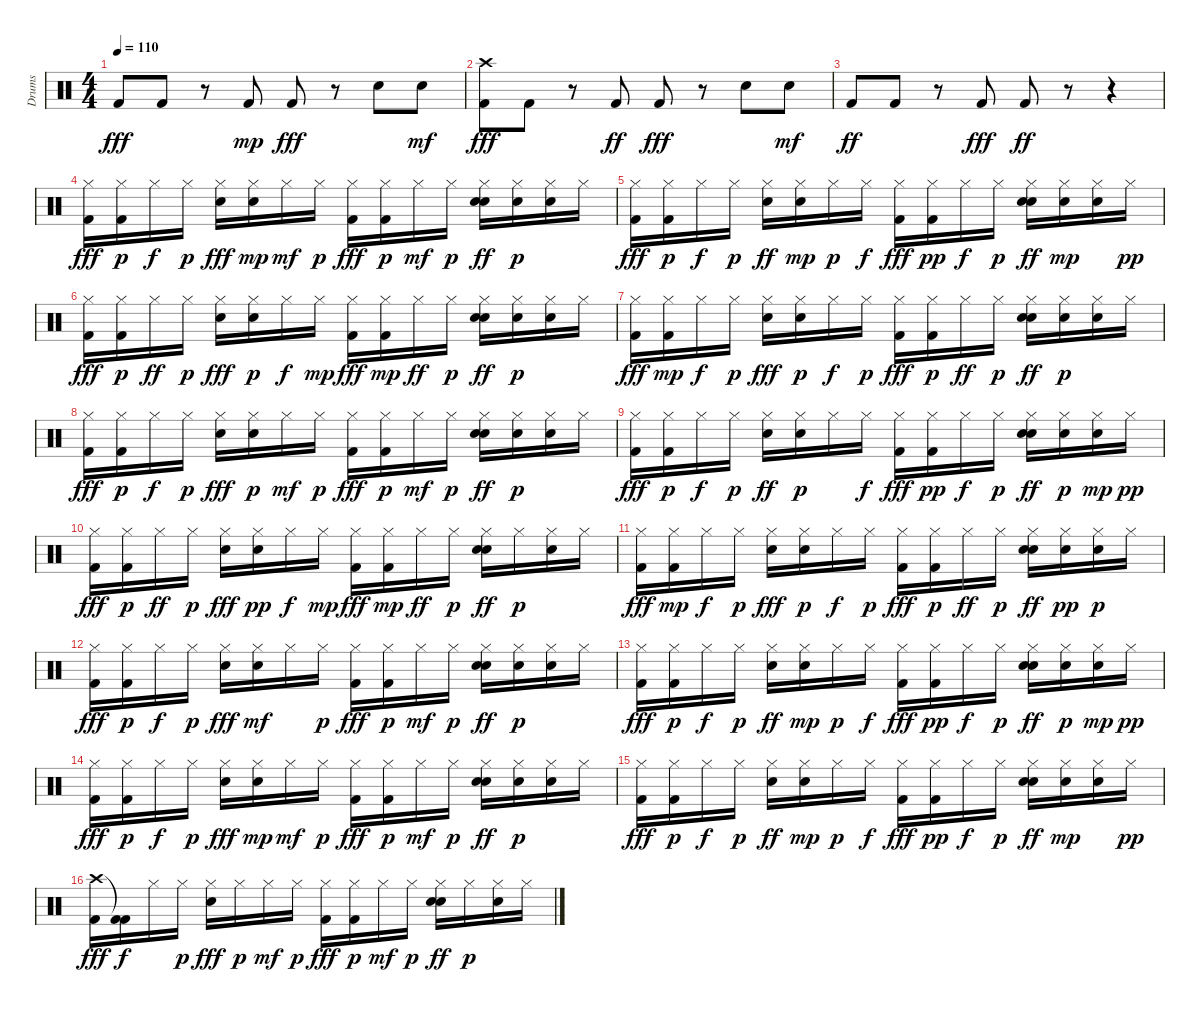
\track ("Drums" "Drums") {instrument percussion}
\staff {score}
\articulation defaults
\ts (4 4)
\tempo 110
\clef neutral
\ks c "Kick (hit) 2".8{dy fff} "Kick (hit) 2".8
r.8 "Kick (hit) 2".8{dy mp} "Kick (hit) 2".8{dy fff} r.8 "Hand Clap (hit)".8 "Hand Clap (hit)".8{dy mf} |
("Crash high (hit)" "Kick (hit) 2").8{dy fff} "Kick (hit) 2".8 r.8 "Kick (hit) 2".8{dy ff} "Kick (hit) 2".8{dy fff} r.8 "Hand Clap (hit)".8 "Hand Clap (hit)".8{dy mf} |
"Kick (hit) 2".8{dy ff} "Kick (hit) 2".8 r.8 "Kick (hit) 2".8{dy fff} "Kick (hit) 2".8{dy ff} r.8 r.4 |
("Hi-Hat (closed)" "Kick (hit) 2").16{dy fff} ("Hi-Hat (closed)" "Kick (hit) 2").16{dy p} "Hi-Hat (closed)".16{dy f} "Hi-Hat (closed)".16{dy p} ("Hi-Hat (closed)" "Snare (hit) 2").16{dy fff} ("Hi-Hat (closed)" "Snare (hit) 2").16{dy mp} "Hi-Hat (closed)".16{dy mf} "Hi-Hat (closed)".16{dy p} ("Hi-Hat (closed)" "Kick (hit) 2").16{dy fff} ("Hi-Hat (closed)" "Kick (hit) 2").16{dy p} "Hi-Hat (closed)".16{dy mf} "Hi-Hat (closed)".16{dy p} ("Hi-Hat (closed)" "Snare (hit) 2" "Hand Clap (hit)").16{dy ff} ("Hi-Hat (closed)" "Snare (hit) 2").16{dy p} ("Hi-Hat (closed)" "Hand Clap (hit)").16 "Hi-Hat (closed)".16 |
("Hi-Hat (closed)" "Kick (hit) 2").16{dy fff} ("Hi-Hat (closed)" "Kick (hit) 2").16{dy p} "Hi-Hat (closed)".16{dy f} "Hi-Hat (closed)".16{dy p} ("Hi-Hat (closed)" "Snare (hit) 2").16{dy ff} ("Hi-Hat (closed)" "Snare (hit) 2").16{dy mp} "Hi-Hat (closed)".16{dy p} "Hi-Hat (closed)".16{dy f} ("Hi-Hat (closed)" "Kick (hit) 2").16{dy fff} ("Hi-Hat (closed)" "Kick (hit) 2").16{dy pp} "Hi-Hat (closed)".16{dy f} "Hi-Hat (closed)".16{dy p} ("Hi-Hat (closed)" "Snare (hit) 2" "Hand Clap (hit)").16{dy ff} ("Hi-Hat (closed)" "Snare (hit) 2").16{dy mp} ("Hi-Hat (closed)" "Hand Clap (hit)").16 "Hi-Hat (closed)".16{dy pp} |
("Hi-Hat (closed)" "Kick (hit) 2").16{dy fff} ("Hi-Hat (closed)" "Kick (hit) 2").16{dy p} "Hi-Hat (closed)".16{dy ff} "Hi-Hat (closed)".16{dy p} ("Hi-Hat (closed)" "Snare (hit) 2").16{dy fff} ("Hi-Hat (closed)" "Snare (hit) 2").16{dy p} "Hi-Hat (closed)".16{dy f} "Hi-Hat (closed)".16{dy mp} ("Hi-Hat (closed)" "Kick (hit) 2").16{dy fff} ("Hi-Hat (closed)" "Kick (hit) 2").16{dy mp} "Hi-Hat (closed)".16{dy ff} "Hi-Hat (closed)".16{dy p} ("Hi-Hat (closed)" "Snare (hit) 2" "Hand Clap (hit)").16{dy ff} ("Hi-Hat (closed)" "Snare (hit) 2").16{dy p} ("Hi-Hat (closed)" "Hand Clap (hit)").16 "Hi-Hat (closed)".16 |
("Hi-Hat (closed)" "Kick (hit) 2").16{dy fff} ("Hi-Hat (closed)" "Kick (hit) 2").16{dy mp} "Hi-Hat (closed)".16{dy f} "Hi-Hat (closed)".16{dy p} ("Hi-Hat (closed)" "Snare (hit) 2").16{dy fff} ("Hi-Hat (closed)" "Snare (hit) 2").16{dy p} "Hi-Hat (closed)".16{dy f} "Hi-Hat (closed)".16{dy p} ("Hi-Hat (closed)" "Kick (hit) 2").16{dy fff} ("Hi-Hat (closed)" "Kick (hit) 2").16{dy p} "Hi-Hat (closed)".16{dy ff} "Hi-Hat (closed)".16{dy p} ("Hi-Hat (closed)" "Snare (hit) 2" "Hand Clap (hit)").16{dy ff} ("Hi-Hat (closed)" "Snare (hit) 2").16{dy p} ("Hi-Hat (closed)" "Hand Clap (hit)").16 "Hi-Hat (closed)".16 |
("Hi-Hat (closed)" "Kick (hit) 2").16{dy fff} ("Hi-Hat (closed)" "Kick (hit) 2").16{dy p} "Hi-Hat (closed)".16{dy f} "Hi-Hat (closed)".16{dy p} ("Hi-Hat (closed)" "Snare (hit) 2").16{dy fff} ("Hi-Hat (closed)" "Snare (hit) 2").16{dy p} "Hi-Hat (closed)".16{dy mf} "Hi-Hat (closed)".16{dy p} ("Hi-Hat (closed)" "Kick (hit) 2").16{dy fff} ("Hi-Hat (closed)" "Kick (hit) 2").16{dy p} "Hi-Hat (closed)".16{dy mf} "Hi-Hat (closed)".16{dy p} ("Hi-Hat (closed)" "Snare (hit) 2" "Hand Clap (hit)").16{dy ff} ("Hi-Hat (closed)" "Snare (hit) 2").16{dy p} ("Hi-Hat (closed)" "Hand Clap (hit)").16 "Hi-Hat (closed)".16 |
("Hi-Hat (closed)" "Kick (hit) 2").16{dy fff} ("Hi-Hat (closed)" "Kick (hit) 2").16{dy p} "Hi-Hat (closed)".16{dy f} "Hi-Hat (closed)".16{dy p} ("Hi-Hat (closed)" "Snare (hit) 2").16{dy ff} ("Hi-Hat (closed)" "Snare (hit) 2").16{dy p} "Hi-Hat (closed)".16 "Hi-Hat (closed)".16{dy f} ("Hi-Hat (closed)" "Kick (hit) 2").16{dy fff} ("Hi-Hat (closed)" "Kick (hit) 2").16{dy pp} "Hi-Hat (closed)".16{dy f} "Hi-Hat (closed)".16{dy p} ("Hi-Hat (closed)" "Snare (hit) 2" "Hand Clap (hit)").16{dy ff} ("Hi-Hat (closed)" "Snare (hit) 2").16{dy p} ("Hi-Hat (closed)" "Hand Clap (hit)").16{dy mp} "Hi-Hat (closed)".16{dy pp} |
("Hi-Hat (closed)" "Kick (hit) 2").16{dy fff} ("Hi-Hat (closed)" "Kick (hit) 2").16{dy p} "Hi-Hat (closed)".16{dy ff} "Hi-Hat (closed)".16{dy p} ("Hi-Hat (closed)" "Snare (hit) 2").16{dy fff} ("Hi-Hat (closed)" "Snare (hit) 2").16{dy pp} "Hi-Hat (closed)".16{dy f} "Hi-Hat (closed)".16{dy mp} ("Hi-Hat (closed)" "Kick (hit) 2").16{dy fff} ("Hi-Hat (closed)" "Kick (hit) 2").16{dy mp} "Hi-Hat (closed)".16{dy ff} "Hi-Hat (closed)".16{dy p} ("Hi-Hat (closed)" "Snare (hit) 2" "Hand Clap (hit)").16{dy ff} "Hi-Hat (closed)".16{dy p} ("Hi-Hat (closed)" "Hand Clap (hit)").16 "Hi-Hat (closed)".16 |
("Hi-Hat (closed)" "Kick (hit) 2").16{dy fff} ("Hi-Hat (closed)" "Kick (hit) 2").16{dy mp} "Hi-Hat (closed)".16{dy f} "Hi-Hat (closed)".16{dy p} ("Hi-Hat (closed)" "Snare (hit) 2").16{dy fff} ("Hi-Hat (closed)" "Snare (hit) 2").16{dy p} "Hi-Hat (closed)".16{dy f} "Hi-Hat (closed)".16{dy p} ("Hi-Hat (closed)" "Kick (hit) 2").16{dy fff} ("Hi-Hat (closed)" "Kick (hit) 2").16{dy p} "Hi-Hat (closed)".16{dy ff} "Hi-Hat (closed)".16{dy p} ("Hi-Hat (closed)" "Snare (hit) 2" "Hand Clap (hit)").16{dy ff} ("Hi-Hat (closed)" "Snare (hit) 2").16{dy pp} ("Hi-Hat (closed)" "Hand Clap (hit)").16{dy p} "Hi-Hat (closed)".16 |
("Hi-Hat (closed)" "Kick (hit) 2").16{dy fff} ("Hi-Hat (closed)" "Kick (hit) 2").16{dy p} "Hi-Hat (closed)".16{dy f} "Hi-Hat (closed)".16{dy p} ("Hi-Hat (closed)" "Snare (hit) 2").16{dy fff} ("Hi-Hat (closed)" "Snare (hit) 2").16{dy mf} "Hi-Hat (closed)".16 "Hi-Hat (closed)".16{dy p} ("Hi-Hat (closed)" "Kick (hit) 2").16{dy fff} ("Hi-Hat (closed)" "Kick (hit) 2").16{dy p} "Hi-Hat (closed)".16{dy mf} "Hi-Hat (closed)".16{dy p} ("Hi-Hat (closed)" "Snare (hit) 2" "Hand Clap (hit)").16{dy ff} ("Hi-Hat (closed)" "Snare (hit) 2").16{dy p} ("Hi-Hat (closed)" "Hand Clap (hit)").16 "Hi-Hat (closed)".16 |
("Hi-Hat (closed)" "Kick (hit) 2").16{dy fff} ("Hi-Hat (closed)" "Kick (hit) 2").16{dy p} "Hi-Hat (closed)".16{dy f} "Hi-Hat (closed)".16{dy p} ("Hi-Hat (closed)" "Snare (hit) 2").16{dy ff} ("Hi-Hat (closed)" "Snare (hit) 2").16{dy mp} "Hi-Hat (closed)".16{dy p} "Hi-Hat (closed)".16{dy f} ("Hi-Hat (closed)" "Kick (hit) 2").16{dy fff} ("Hi-Hat (closed)" "Kick (hit) 2").16{dy pp} "Hi-Hat (closed)".16{dy f} "Hi-Hat (closed)".16{dy p} ("Hi-Hat (closed)" "Snare (hit) 2" "Hand Clap (hit)").16{dy ff} ("Hi-Hat (closed)" "Snare (hit) 2").16{dy p} ("Hi-Hat (closed)" "Hand Clap (hit)").16{dy mp} "Hi-Hat (closed)".16{dy pp} |
("Hi-Hat (closed)" "Kick (hit) 2").16{dy fff} ("Hi-Hat (closed)" "Kick (hit) 2").16{dy p} "Hi-Hat (closed)".16{dy f} "Hi-Hat (closed)".16{dy p} ("Hi-Hat (closed)" "Snare (hit) 2").16{dy fff} ("Hi-Hat (closed)" "Snare (hit) 2").16{dy mp} "Hi-Hat (closed)".16{dy mf} "Hi-Hat (closed)".16{dy p} ("Hi-Hat (closed)" "Kick (hit) 2").16{dy fff} ("Hi-Hat (closed)" "Kick (hit) 2").16{dy p} "Hi-Hat (closed)".16{dy mf} "Hi-Hat (closed)".16{dy p} ("Hi-Hat (closed)" "Snare (hit) 2" "Hand Clap (hit)").16{dy ff} ("Hi-Hat (closed)" "Snare (hit) 2").16{dy p} ("Hi-Hat (closed)" "Hand Clap (hit)").16 "Hi-Hat (closed)".16 |
("Hi-Hat (closed)" "Kick (hit) 2").16{dy fff} ("Hi-Hat (closed)" "Kick (hit) 2").16{dy p} "Hi-Hat (closed)".16{dy f} "Hi-Hat (closed)".16{dy p} ("Hi-Hat (closed)" "Snare (hit) 2").16{dy ff} ("Hi-Hat (closed)" "Snare (hit) 2").16{dy mp} "Hi-Hat (closed)".16{dy p} "Hi-Hat (closed)".16{dy f} ("Hi-Hat (closed)" "Kick (hit) 2").16{dy fff} ("Hi-Hat (closed)" "Kick (hit) 2").16{dy pp} "Hi-Hat (closed)".16{dy f} "Hi-Hat (closed)".16{dy p} ("Hi-Hat (closed)" "Snare (hit) 2" "Hand Clap (hit)").16{dy ff} ("Hi-Hat (closed)" "Snare (hit) 2").16{dy mp} ("Hi-Hat (closed)" "Hand Clap (hit)").16 "Hi-Hat (closed)".16{dy pp} |
("Crash high (hit)" "Kick (hit) 2").16{dy fff} ("Kick (hit) 2"{t} "Kick (hit) 2").16{dy f} "Hi-Hat (closed)".16 "Hi-Hat (closed)".16{dy p} ("Hi-Hat (closed)" "Snare (hit) 2").16{dy fff} "Hi-Hat (closed)".16{dy p} "Hi-Hat (closed)".16{dy mf} "Hi-Hat (closed)".16{dy p} ("Hi-Hat (closed)" "Kick (hit) 2").16{dy fff} ("Hi-Hat (closed)" "Kick (hit) 2").16{dy p} "Hi-Hat (closed)".16{dy mf} "Hi-Hat (closed)".16{dy p} ("Hi-Hat (closed)" "Snare (hit) 2" "Hand Clap (hit)").16{dy ff} "Hi-Hat (closed)".16{dy p} ("Hi-Hat (closed)" "Hand Clap (hit)").16 "Hi-Hat (closed)".16
